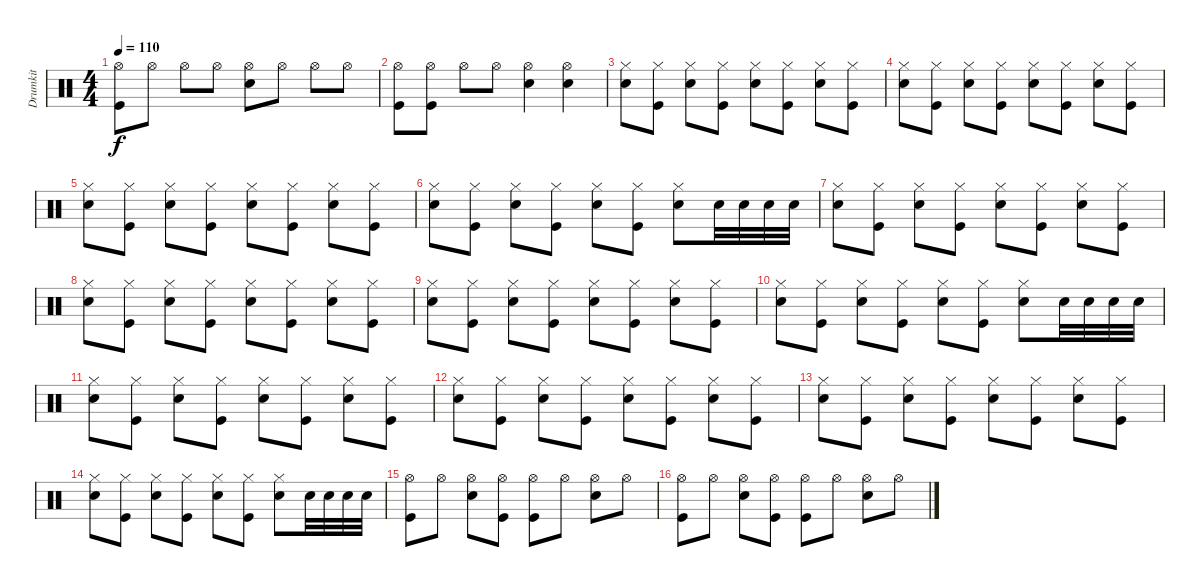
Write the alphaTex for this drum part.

\track ("Drumkit" "Drumkit") {instrument percussion}
\staff {score}
\articulation defaults
\ts (4 4)
\tempo 110
\clef neutral
\ks c
("Hi-Hat (open)" "Kick (hit)").8{dy f} "Hi-Hat (open)".8 "Hi-Hat (open)".8 "Hi-Hat (open)".8 ("Hi-Hat (open)" "Snare (hit) 2").8 "Hi-Hat (open)".8 "Hi-Hat (open)".8 "Hi-Hat (open)".8 |
("Hi-Hat (open)" "Kick (hit)").8 ("Hi-Hat (open)" "Kick (hit)").8 "Hi-Hat (open)".8 "Hi-Hat (open)".8 ("Hi-Hat (open)" "Snare (hit) 2").4 ("Hi-Hat (open)" "Snare (hit) 2").4 |
("Hi-Hat (closed)" "Snare (hit) 2").8 ("Hi-Hat (closed)" "Kick (hit)").8 ("Hi-Hat (closed)" "Snare (hit) 2").8 ("Hi-Hat (closed)" "Kick (hit)").8 ("Hi-Hat (closed)" "Snare (hit) 2").8 ("Hi-Hat (closed)" "Kick (hit)").8 ("Hi-Hat (closed)" "Snare (hit) 2").8 ("Hi-Hat (closed)" "Kick (hit)").8 |
("Hi-Hat (closed)" "Snare (hit) 2").8 ("Hi-Hat (closed)" "Kick (hit)").8 ("Hi-Hat (closed)" "Snare (hit) 2").8 ("Hi-Hat (closed)" "Kick (hit)").8 ("Hi-Hat (closed)" "Snare (hit) 2").8 ("Hi-Hat (closed)" "Kick (hit)").8 ("Hi-Hat (closed)" "Snare (hit) 2").8 ("Hi-Hat (closed)" "Kick (hit)").8 |
("Hi-Hat (closed)" "Snare (hit) 2").8 ("Hi-Hat (closed)" "Kick (hit)").8 ("Hi-Hat (closed)" "Snare (hit) 2").8 ("Hi-Hat (closed)" "Kick (hit)").8 ("Hi-Hat (closed)" "Snare (hit) 2").8 ("Hi-Hat (closed)" "Kick (hit)").8 ("Hi-Hat (closed)" "Snare (hit) 2").8 ("Hi-Hat (closed)" "Kick (hit)").8 |
("Hi-Hat (closed)" "Snare (hit) 2").8 ("Hi-Hat (closed)" "Kick (hit)").8 ("Hi-Hat (closed)" "Snare (hit) 2").8 ("Hi-Hat (closed)" "Kick (hit)").8 ("Hi-Hat (closed)" "Snare (hit) 2").8 ("Hi-Hat (closed)" "Kick (hit)").8 ("Hi-Hat (closed)" "Snare (hit) 2").8 "Snare (hit) 2".32 "Snare (hit) 2".32 "Snare (hit) 2".32 "Snare (hit) 2".32 |
("Hi-Hat (closed)" "Snare (hit) 2").8 ("Hi-Hat (closed)" "Kick (hit)").8 ("Hi-Hat (closed)" "Snare (hit) 2").8 ("Hi-Hat (closed)" "Kick (hit)").8 ("Hi-Hat (closed)" "Snare (hit) 2").8 ("Hi-Hat (closed)" "Kick (hit)").8 ("Hi-Hat (closed)" "Snare (hit) 2").8 ("Hi-Hat (closed)" "Kick (hit)").8 |
("Hi-Hat (closed)" "Snare (hit) 2").8 ("Hi-Hat (closed)" "Kick (hit)").8 ("Hi-Hat (closed)" "Snare (hit) 2").8 ("Hi-Hat (closed)" "Kick (hit)").8 ("Hi-Hat (closed)" "Snare (hit) 2").8 ("Hi-Hat (closed)" "Kick (hit)").8 ("Hi-Hat (closed)" "Snare (hit) 2").8 ("Hi-Hat (closed)" "Kick (hit)").8 |
("Hi-Hat (closed)" "Snare (hit) 2").8 ("Hi-Hat (closed)" "Kick (hit)").8 ("Hi-Hat (closed)" "Snare (hit) 2").8 ("Hi-Hat (closed)" "Kick (hit)").8 ("Hi-Hat (closed)" "Snare (hit) 2").8 ("Hi-Hat (closed)" "Kick (hit)").8 ("Hi-Hat (closed)" "Snare (hit) 2").8 ("Hi-Hat (closed)" "Kick (hit)").8 |
("Hi-Hat (closed)" "Snare (hit) 2").8 ("Hi-Hat (closed)" "Kick (hit)").8 ("Hi-Hat (closed)" "Snare (hit) 2").8 ("Hi-Hat (closed)" "Kick (hit)").8 ("Hi-Hat (closed)" "Snare (hit) 2").8 ("Hi-Hat (closed)" "Kick (hit)").8 ("Hi-Hat (closed)" "Snare (hit) 2").8 "Snare (hit) 2".32 "Snare (hit) 2".32 "Snare (hit) 2".32 "Snare (hit) 2".32 |
("Hi-Hat (closed)" "Snare (hit) 2").8 ("Hi-Hat (closed)" "Kick (hit)").8 ("Hi-Hat (closed)" "Snare (hit) 2").8 ("Hi-Hat (closed)" "Kick (hit)").8 ("Hi-Hat (closed)" "Snare (hit) 2").8 ("Hi-Hat (closed)" "Kick (hit)").8 ("Hi-Hat (closed)" "Snare (hit) 2").8 ("Hi-Hat (closed)" "Kick (hit)").8 |
("Hi-Hat (closed)" "Snare (hit) 2").8 ("Hi-Hat (closed)" "Kick (hit)").8 ("Hi-Hat (closed)" "Snare (hit) 2").8 ("Hi-Hat (closed)" "Kick (hit)").8 ("Hi-Hat (closed)" "Snare (hit) 2").8 ("Hi-Hat (closed)" "Kick (hit)").8 ("Hi-Hat (closed)" "Snare (hit) 2").8 ("Hi-Hat (closed)" "Kick (hit)").8 |
("Hi-Hat (closed)" "Snare (hit) 2").8 ("Hi-Hat (closed)" "Kick (hit)").8 ("Hi-Hat (closed)" "Snare (hit) 2").8 ("Hi-Hat (closed)" "Kick (hit)").8 ("Hi-Hat (closed)" "Snare (hit) 2").8 ("Hi-Hat (closed)" "Kick (hit)").8 ("Hi-Hat (closed)" "Snare (hit) 2").8 ("Hi-Hat (closed)" "Kick (hit)").8 |
("Hi-Hat (closed)" "Snare (hit) 2").8 ("Hi-Hat (closed)" "Kick (hit)").8 ("Hi-Hat (closed)" "Snare (hit) 2").8 ("Hi-Hat (closed)" "Kick (hit)").8 ("Hi-Hat (closed)" "Snare (hit) 2").8 ("Hi-Hat (closed)" "Kick (hit)").8 ("Hi-Hat (closed)" "Snare (hit) 2").8 "Snare (hit) 2".32 "Snare (hit) 2".32 "Snare (hit) 2".32 "Snare (hit) 2".32 |
("Hi-Hat (open)" "Kick (hit)").8 "Hi-Hat (open)".8 ("Hi-Hat (open)" "Snare (hit) 2").8 ("Hi-Hat (open)" "Kick (hit)").8 ("Hi-Hat (open)" "Kick (hit)").8 "Hi-Hat (open)".8 ("Hi-Hat (open)" "Snare (hit) 2").8 "Hi-Hat (open)".8 |
("Hi-Hat (open)" "Kick (hit)").8 "Hi-Hat (open)".8 ("Hi-Hat (open)" "Snare (hit) 2").8 ("Hi-Hat (open)" "Kick (hit)").8 ("Hi-Hat (open)" "Kick (hit)").8 "Hi-Hat (open)".8 ("Hi-Hat (open)" "Snare (hit) 2").8 "Hi-Hat (open)".8
